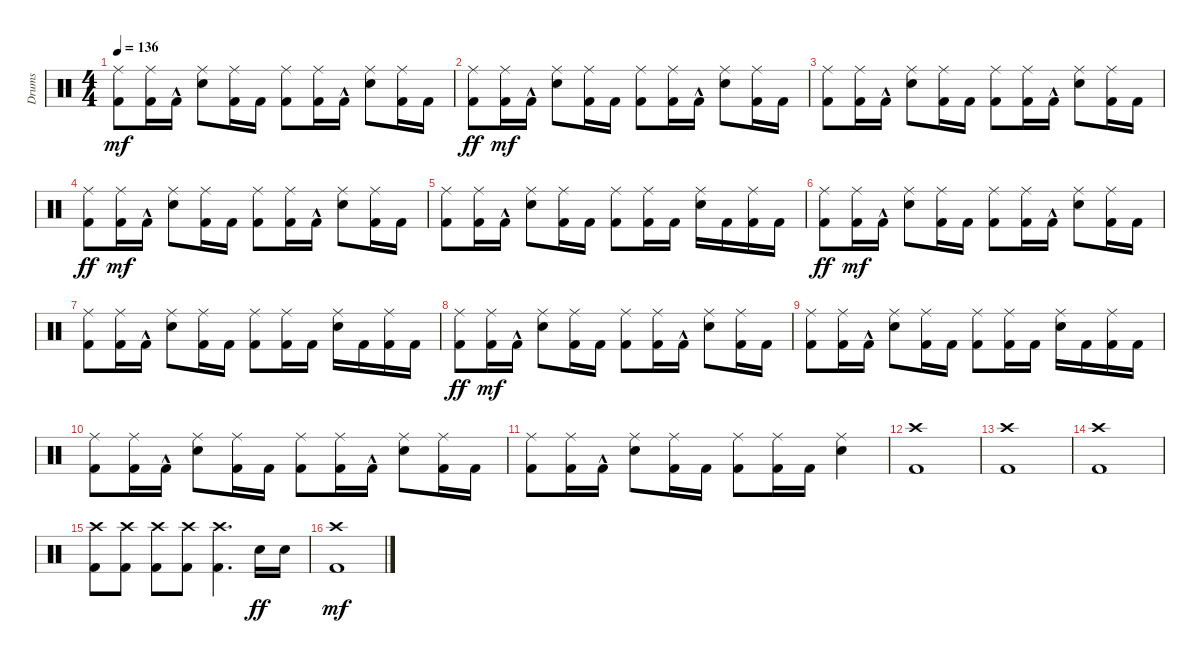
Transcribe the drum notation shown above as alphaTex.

\track ("Drums" "Drums") {instrument percussion}
\staff {score}
\articulation defaults
\ts (4 4)
\tempo 136
\clef neutral
\ks c
("Kick (hit) 2" "Ride (middle)").8{dy mf} ("Kick (hit) 2" "Ride (middle)").16 "Kick (hit) 2"{hac}.16 ("Snare (hit) 2" "Ride (middle)").8 ("Kick (hit) 2" "Ride (middle)").16 "Kick (hit) 2".16 ("Kick (hit) 2" "Ride (middle)").8 ("Kick (hit) 2" "Ride (middle)").16 "Kick (hit) 2"{hac}.16 ("Snare (hit) 2" "Ride (middle)").8 ("Kick (hit) 2" "Ride (middle)").16 "Kick (hit) 2".16 |
("Kick (hit) 2" "Ride (middle)").8{dy ff} ("Kick (hit) 2" "Ride (middle)").16{dy mf} "Kick (hit) 2"{hac}.16 ("Snare (hit) 2" "Ride (middle)").8 ("Kick (hit) 2" "Ride (middle)").16 "Kick (hit) 2".16 ("Kick (hit) 2" "Ride (middle)").8 ("Kick (hit) 2" "Ride (middle)").16 "Kick (hit) 2"{hac}.16 ("Snare (hit) 2" "Ride (middle)").8 ("Kick (hit) 2" "Ride (middle)").16 "Kick (hit) 2".16 |
("Kick (hit) 2" "Ride (middle)").8 ("Kick (hit) 2" "Ride (middle)").16 "Kick (hit) 2"{hac}.16 ("Snare (hit) 2" "Ride (middle)").8 ("Kick (hit) 2" "Ride (middle)").16 "Kick (hit) 2".16 ("Kick (hit) 2" "Ride (middle)").8 ("Kick (hit) 2" "Ride (middle)").16 "Kick (hit) 2"{hac}.16 ("Snare (hit) 2" "Ride (middle)").8 ("Kick (hit) 2" "Ride (middle)").16 "Kick (hit) 2".16 |
("Kick (hit) 2" "Ride (middle)").8{dy ff} ("Kick (hit) 2" "Ride (middle)").16{dy mf} "Kick (hit) 2"{hac}.16 ("Snare (hit) 2" "Ride (middle)").8 ("Kick (hit) 2" "Ride (middle)").16 "Kick (hit) 2".16 ("Kick (hit) 2" "Ride (middle)").8 ("Kick (hit) 2" "Ride (middle)").16 "Kick (hit) 2"{hac}.16 ("Snare (hit) 2" "Ride (middle)").8 ("Kick (hit) 2" "Ride (middle)").16 "Kick (hit) 2".16 |
("Kick (hit) 2" "Ride (middle)").8 ("Kick (hit) 2" "Ride (middle)").16 "Kick (hit) 2"{hac}.16 ("Snare (hit) 2" "Ride (middle)").8 ("Kick (hit) 2" "Ride (middle)").16 "Kick (hit) 2".16 ("Kick (hit) 2" "Ride (middle)").8 ("Kick (hit) 2" "Ride (middle)").16 "Kick (hit) 2".16 ("Snare (hit) 2" "Ride (middle)").16 "Kick (hit) 2".16 ("Kick (hit) 2" "Ride (middle)").16 "Kick (hit) 2".16 |
("Kick (hit) 2" "Ride (middle)").8{dy ff} ("Kick (hit) 2" "Ride (middle)").16{dy mf} "Kick (hit) 2"{hac}.16 ("Snare (hit) 2" "Ride (middle)").8 ("Kick (hit) 2" "Ride (middle)").16 "Kick (hit) 2".16 ("Kick (hit) 2" "Ride (middle)").8 ("Kick (hit) 2" "Ride (middle)").16 "Kick (hit) 2"{hac}.16 ("Snare (hit) 2" "Ride (middle)").8 ("Kick (hit) 2" "Ride (middle)").16 "Kick (hit) 2".16 |
("Kick (hit) 2" "Ride (middle)").8 ("Kick (hit) 2" "Ride (middle)").16 "Kick (hit) 2"{hac}.16 ("Snare (hit) 2" "Ride (middle)").8 ("Kick (hit) 2" "Ride (middle)").16 "Kick (hit) 2".16 ("Kick (hit) 2" "Ride (middle)").8 ("Kick (hit) 2" "Ride (middle)").16 "Kick (hit) 2".16 ("Snare (hit) 2" "Ride (middle)").16 "Kick (hit) 2".16 ("Kick (hit) 2" "Ride (middle)").16 "Kick (hit) 2".16 |
("Kick (hit) 2" "Ride (middle)").8{dy ff} ("Kick (hit) 2" "Ride (middle)").16{dy mf} "Kick (hit) 2"{hac}.16 ("Snare (hit) 2" "Ride (middle)").8 ("Kick (hit) 2" "Ride (middle)").16 "Kick (hit) 2".16 ("Kick (hit) 2" "Ride (middle)").8 ("Kick (hit) 2" "Ride (middle)").16 "Kick (hit) 2"{hac}.16 ("Snare (hit) 2" "Ride (middle)").8 ("Kick (hit) 2" "Ride (middle)").16 "Kick (hit) 2".16 |
("Kick (hit) 2" "Ride (middle)").8 ("Kick (hit) 2" "Ride (middle)").16 "Kick (hit) 2"{hac}.16 ("Snare (hit) 2" "Ride (middle)").8 ("Kick (hit) 2" "Ride (middle)").16 "Kick (hit) 2".16 ("Kick (hit) 2" "Ride (middle)").8 ("Kick (hit) 2" "Ride (middle)").16 "Kick (hit) 2".16 ("Snare (hit) 2" "Ride (middle)").16 "Kick (hit) 2".16 ("Kick (hit) 2" "Ride (middle)").16 "Kick (hit) 2".16 |
("Kick (hit) 2" "Ride (middle)").8 ("Kick (hit) 2" "Ride (middle)").16 "Kick (hit) 2"{hac}.16 ("Snare (hit) 2" "Ride (middle)").8 ("Kick (hit) 2" "Ride (middle)").16 "Kick (hit) 2".16 ("Kick (hit) 2" "Ride (middle)").8 ("Kick (hit) 2" "Ride (middle)").16 "Kick (hit) 2"{hac}.16 ("Snare (hit) 2" "Ride (middle)").8 ("Kick (hit) 2" "Ride (middle)").16 "Kick (hit) 2".16 |
("Kick (hit) 2" "Ride (middle)").8 ("Kick (hit) 2" "Ride (middle)").16 "Kick (hit) 2"{hac}.16 ("Snare (hit) 2" "Ride (middle)").8 ("Kick (hit) 2" "Ride (middle)").16 "Kick (hit) 2".16 ("Kick (hit) 2" "Ride (middle)").8 ("Kick (hit) 2" "Ride (middle)").16 "Kick (hit) 2".16 ("Snare (hit) 2" "Ride (middle)").4 |
("Kick (hit) 2" "Crash high (hit)").1 |
("Kick (hit) 2" "Crash high (hit)").1 |
("Kick (hit) 2" "Crash high (hit)").1 |
("Kick (hit) 2" "Crash high (hit)").8 ("Kick (hit) 2" "Crash high (hit)").8 ("Kick (hit) 2" "Crash high (hit)").8 ("Kick (hit) 2" "Crash high (hit)").8 ("Kick (hit) 2" "Crash high (hit)").4{d} "Snare (hit) 2".16{dy ff} "Snare (hit) 2".16 |
("Kick (hit) 2" "Crash high (hit)").1{dy mf}
